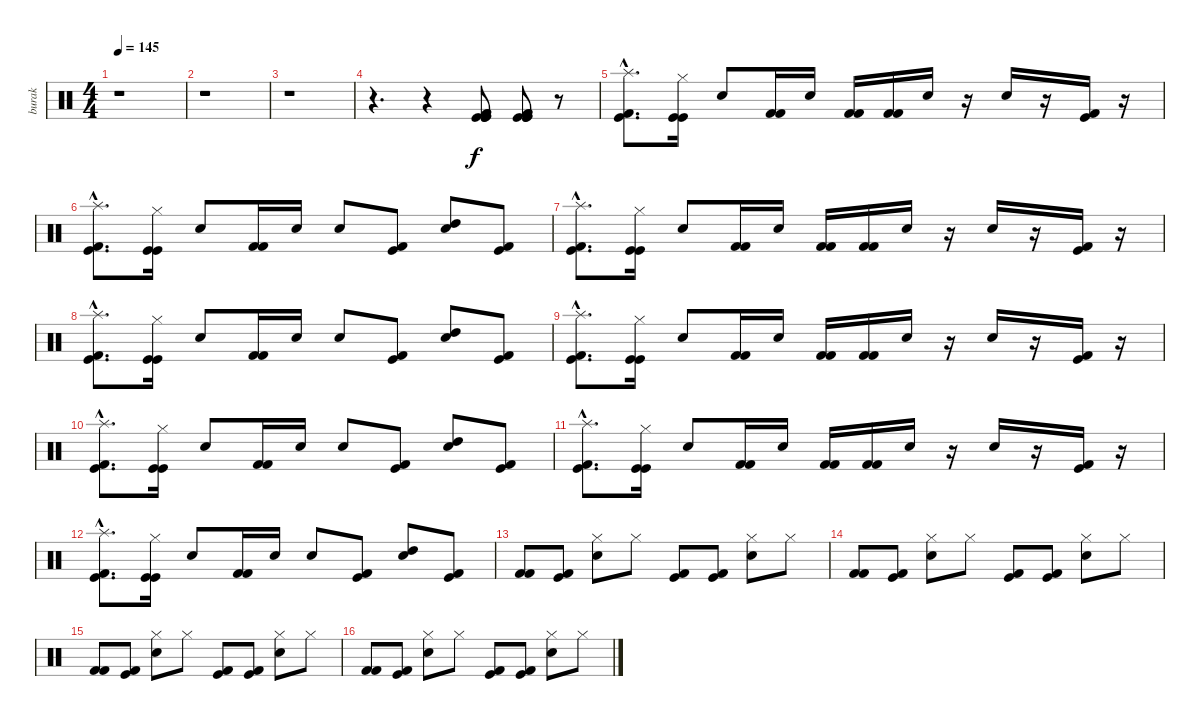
\track ("burak" "burak") {instrument percussion}
\staff {score}
\articulation defaults
\ts (4 4)
\tempo 145
\clef neutral
\ks c
r.1{dy f} |
r.1 |
r.1 |
r.4{d} r.4 ("Kick (hit)" "Kick (hit)" "Kick (hit) 2" "Kick (hit)" "Kick (hit) 2").8 ("Kick (hit) 2" "Kick (hit)" "Kick (hit) 2" "Kick (hit)" "Kick (hit)").8 r.8 |
("Splash (hit)"{hac} "Kick (hit)"{hac} "Kick (hit) 2"{hac}).8{d} ("Hi-Hat (closed)" "Kick (hit)" "Kick (hit)").16 "Electric Snare (hit)".8 ("Kick (hit) 2" "Kick (hit) 2").16 "Electric Snare (hit)".16 ("Kick (hit) 2" "Kick (hit) 2").16 ("Kick (hit) 2" "Kick (hit) 2").16 "Electric Snare (hit)".16 r.16 "Electric Snare (hit)".16 r.16 ("Kick (hit)" "Kick (hit) 2").16 r.16 |
("Splash (hit)"{hac} "Kick (hit)"{hac} "Kick (hit) 2"{hac}).8{d} ("Hi-Hat (closed)" "Kick (hit)" "Kick (hit)").16 "Electric Snare (hit)".8 ("Kick (hit) 2" "Kick (hit) 2").16 "Electric Snare (hit)".16 "Electric Snare (hit)".8 ("Kick (hit)" "Kick (hit) 2").8 ("Electric Snare (hit)" "High Tom (hit)").8 ("Kick (hit)" "Kick (hit) 2").8 |
("Splash (hit)"{hac} "Kick (hit)"{hac} "Kick (hit) 2"{hac}).8{d} ("Hi-Hat (closed)" "Kick (hit)" "Kick (hit)").16 "Electric Snare (hit)".8 ("Kick (hit) 2" "Kick (hit) 2").16 "Electric Snare (hit)".16 ("Kick (hit) 2" "Kick (hit) 2").16 ("Kick (hit) 2" "Kick (hit) 2").16 "Electric Snare (hit)".16 r.16 "Electric Snare (hit)".16 r.16 ("Kick (hit)" "Kick (hit) 2").16 r.16 |
("Splash (hit)"{hac} "Kick (hit)"{hac} "Kick (hit) 2"{hac}).8{d} ("Hi-Hat (closed)" "Kick (hit)" "Kick (hit)").16 "Electric Snare (hit)".8 ("Kick (hit) 2" "Kick (hit) 2").16 "Electric Snare (hit)".16 "Electric Snare (hit)".8 ("Kick (hit)" "Kick (hit) 2").8 ("Electric Snare (hit)" "High Tom (hit)").8 ("Kick (hit)" "Kick (hit) 2").8 |
("Splash (hit)"{hac} "Kick (hit)"{hac} "Kick (hit) 2"{hac}).8{d} ("Hi-Hat (closed)" "Kick (hit)" "Kick (hit)").16 "Electric Snare (hit)".8 ("Kick (hit) 2" "Kick (hit) 2").16 "Electric Snare (hit)".16 ("Kick (hit) 2" "Kick (hit) 2").16 ("Kick (hit) 2" "Kick (hit) 2").16 "Electric Snare (hit)".16 r.16 "Electric Snare (hit)".16 r.16 ("Kick (hit)" "Kick (hit) 2").16 r.16 |
("Splash (hit)"{hac} "Kick (hit)"{hac} "Kick (hit) 2"{hac}).8{d} ("Hi-Hat (closed)" "Kick (hit)" "Kick (hit)").16 "Electric Snare (hit)".8 ("Kick (hit) 2" "Kick (hit) 2").16 "Electric Snare (hit)".16 "Electric Snare (hit)".8 ("Kick (hit)" "Kick (hit) 2").8 ("Electric Snare (hit)" "High Tom (hit)").8 ("Kick (hit)" "Kick (hit) 2").8 |
("Splash (hit)"{hac} "Kick (hit)"{hac} "Kick (hit) 2"{hac}).8{d} ("Hi-Hat (closed)" "Kick (hit)" "Kick (hit)").16 "Electric Snare (hit)".8 ("Kick (hit) 2" "Kick (hit) 2").16 "Electric Snare (hit)".16 ("Kick (hit) 2" "Kick (hit) 2").16 ("Kick (hit) 2" "Kick (hit) 2").16 "Electric Snare (hit)".16 r.16 "Electric Snare (hit)".16 r.16 ("Kick (hit)" "Kick (hit) 2").16 r.16 |
("Splash (hit)"{hac} "Kick (hit)"{hac} "Kick (hit) 2"{hac}).8{d} ("Hi-Hat (closed)" "Kick (hit)" "Kick (hit)").16 "Electric Snare (hit)".8 ("Kick (hit) 2" "Kick (hit) 2").16 "Electric Snare (hit)".16 "Electric Snare (hit)".8 ("Kick (hit)" "Kick (hit) 2").8 ("Electric Snare (hit)" "High Tom (hit)").8 ("Kick (hit)" "Kick (hit) 2").8 |
("Kick (hit) 2" "Kick (hit) 2").8 ("Kick (hit)" "Kick (hit) 2").8 ("Snare (hit) 2" "Hi-Hat (closed)").8 "Hi-Hat (closed)".8 ("Kick (hit)" "Kick (hit) 2").8 ("Kick (hit)" "Kick (hit) 2").8 ("Snare (hit) 2" "Hi-Hat (closed)").8 "Hi-Hat (closed)".8 |
("Kick (hit) 2" "Kick (hit) 2").8 ("Kick (hit)" "Kick (hit) 2").8 ("Snare (hit) 2" "Hi-Hat (closed)").8 "Hi-Hat (closed)".8 ("Kick (hit)" "Kick (hit) 2").8 ("Kick (hit)" "Kick (hit) 2").8 ("Snare (hit) 2" "Hi-Hat (closed)").8 "Hi-Hat (closed)".8 |
("Kick (hit) 2" "Kick (hit) 2").8 ("Kick (hit)" "Kick (hit) 2").8 ("Snare (hit) 2" "Hi-Hat (closed)").8 "Hi-Hat (closed)".8 ("Kick (hit)" "Kick (hit) 2").8 ("Kick (hit)" "Kick (hit) 2").8 ("Snare (hit) 2" "Hi-Hat (closed)").8 "Hi-Hat (closed)".8 |
("Kick (hit) 2" "Kick (hit) 2").8 ("Kick (hit)" "Kick (hit) 2").8 ("Snare (hit) 2" "Hi-Hat (closed)").8 "Hi-Hat (closed)".8 ("Kick (hit)" "Kick (hit) 2").8 ("Kick (hit)" "Kick (hit) 2").8 ("Snare (hit) 2" "Hi-Hat (closed)").8 "Hi-Hat (closed)".8
